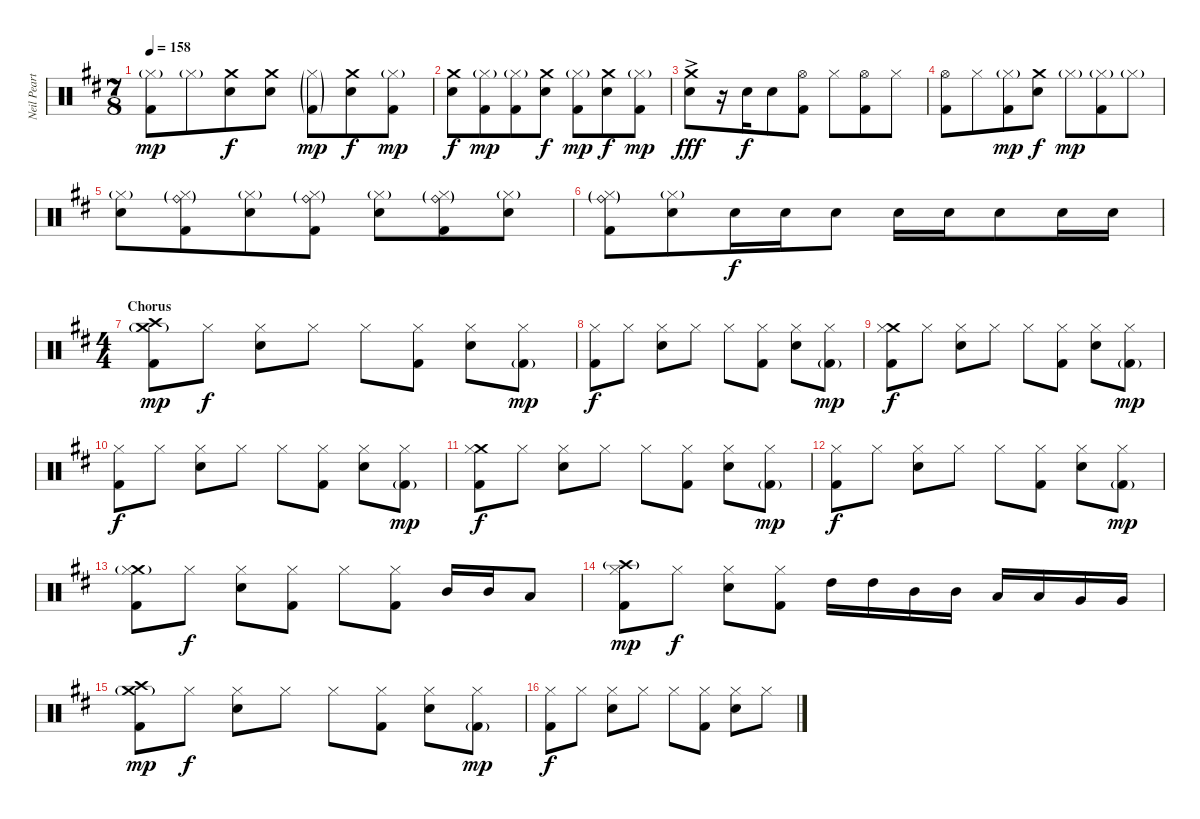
\track ("Neil Peart (drums)" "Neil Peart") {instrument percussion}
\staff {score}
\articulation defaults
\ts (7 8)
\tempo 158
\clef neutral
\ks bminor
("Hi-Hat (closed)"{g} "Kick (hit) 2").8{dy mp} "Hi-Hat (closed)"{g}.8 ("Crash medium (hit)" "Electric Snare (hit)").8{dy f} ("Crash medium (hit)" "Electric Snare (hit)").8 ("Hi-Hat (closed)"{g} "Kick (hit) 2"{g}).8{dy mp} ("Crash medium (hit)" "Electric Snare (hit)").8{dy f} ("Hi-Hat (closed)"{g} "Kick (hit) 2").8{dy mp} |
("Crash medium (hit)" "Electric Snare (hit)").8{dy f} ("Hi-Hat (closed)"{g} "Kick (hit) 2").8{dy mp} ("Hi-Hat (closed)"{g} "Kick (hit) 2").8 ("Crash medium (hit)" "Electric Snare (hit)").8{dy f} ("Hi-Hat (closed)"{g} "Kick (hit) 2").8{dy mp} ("Crash medium (hit)" "Electric Snare (hit)").8{dy f} ("Hi-Hat (closed)"{g} "Kick (hit) 2").8{dy mp} |
("Crash medium (hit)"{ac} "Electric Snare (hit)").8{dy fff} r.16 "Electric Snare (hit)".16{dy f} "Electric Snare (hit)".8 ("Hi-Hat (open)" "Kick (hit) 2").8 "Hi-Hat (closed)".8 ("Hi-Hat (open)" "Kick (hit) 2").8 "Hi-Hat (closed)".8 |
("Hi-Hat (open)" "Kick (hit) 2").8 "Hi-Hat (closed)".8 ("Hi-Hat (closed)"{g} "Kick (hit) 2").8{dy mp} ("Crash medium (hit)" "Electric Snare (hit)").8{dy f} "Hi-Hat (closed)"{g}.8{dy mp} ("Hi-Hat (closed)"{g} "Kick (hit) 2").8 "Hi-Hat (closed)"{g}.8 |
("Hi-Hat (closed)"{g} "Electric Snare (hit)").8 ("Ride (bell)"{g} "Hi-Hat (closed)"{g} "Kick (hit) 2").8 ("Hi-Hat (closed)"{g} "Electric Snare (hit)").8 ("Ride (bell)"{g} "Hi-Hat (closed)"{g} "Kick (hit) 2").8 ("Hi-Hat (closed)"{g} "Electric Snare (hit)").8 ("Ride (bell)"{g} "Hi-Hat (closed)"{g} "Kick (hit) 2").8 ("Hi-Hat (closed)"{g} "Electric Snare (hit)").8 |
("Ride (bell)"{g} "Hi-Hat (closed)"{g} "Kick (hit) 2").8 ("Hi-Hat (closed)"{g} "Electric Snare (hit)").8 "Electric Snare (hit)".16{dy f} "Electric Snare (hit)".16 "Electric Snare (hit)".8 "Electric Snare (hit)".16 "Electric Snare (hit)".16 "Electric Snare (hit)".8 "Electric Snare (hit)".16 "Electric Snare (hit)".16 |
\ts (4 4)
\section ("" "Chorus")
("Crash medium (hit)"{g} "Crash high (hit)" "Kick (hit) 2").8{dy mp} "Hi-Hat (closed)".8{dy f} ("Hi-Hat (closed)" "Electric Snare (hit)").8 "Hi-Hat (closed)".8 "Hi-Hat (closed)".8 ("Hi-Hat (closed)" "Kick (hit) 2").8 ("Hi-Hat (closed)" "Electric Snare (hit)").8 ("Hi-Hat (closed)" "Kick (hit) 2"{g}).8{dy mp} |
("Hi-Hat (closed)" "Kick (hit) 2").8{dy f} "Hi-Hat (closed)".8 ("Hi-Hat (closed)" "Electric Snare (hit)").8 "Hi-Hat (closed)".8 "Hi-Hat (closed)".8 ("Hi-Hat (closed)" "Kick (hit) 2").8 ("Hi-Hat (closed)" "Electric Snare (hit)").8 ("Hi-Hat (closed)" "Kick (hit) 2"{g}).8{dy mp} |
("Crash medium (hit)" "Hi-Hat (closed)" "Kick (hit) 2").8{dy f} "Hi-Hat (closed)".8 ("Hi-Hat (closed)" "Electric Snare (hit)").8 "Hi-Hat (closed)".8 "Hi-Hat (closed)".8 ("Hi-Hat (closed)" "Kick (hit) 2").8 ("Hi-Hat (closed)" "Electric Snare (hit)").8 ("Hi-Hat (closed)" "Kick (hit) 2"{g}).8{dy mp} |
("Hi-Hat (closed)" "Kick (hit) 2").8{dy f} "Hi-Hat (closed)".8 ("Hi-Hat (closed)" "Electric Snare (hit)").8 "Hi-Hat (closed)".8 "Hi-Hat (closed)".8 ("Hi-Hat (closed)" "Kick (hit) 2").8 ("Hi-Hat (closed)" "Electric Snare (hit)").8 ("Hi-Hat (closed)" "Kick (hit) 2"{g}).8{dy mp} |
("Crash medium (hit)" "Hi-Hat (closed)" "Kick (hit) 2").8{dy f} "Hi-Hat (closed)".8 ("Hi-Hat (closed)" "Electric Snare (hit)").8 "Hi-Hat (closed)".8 "Hi-Hat (closed)".8 ("Hi-Hat (closed)" "Kick (hit) 2").8 ("Hi-Hat (closed)" "Electric Snare (hit)").8 ("Hi-Hat (closed)" "Kick (hit) 2"{g}).8{dy mp} |
("Hi-Hat (closed)" "Kick (hit) 2").8{dy f} "Hi-Hat (closed)".8 ("Hi-Hat (closed)" "Electric Snare (hit)").8 "Hi-Hat (closed)".8 "Hi-Hat (closed)".8 ("Hi-Hat (closed)" "Kick (hit) 2").8 ("Hi-Hat (closed)" "Electric Snare (hit)").8 ("Hi-Hat (closed)" "Kick (hit) 2"{g}).8{dy mp} |
("Crash medium (hit)"{g} "Hi-Hat (closed)" "Kick (hit) 2").8 "Hi-Hat (closed)".8{dy f} ("Hi-Hat (closed)" "Electric Snare (hit)").8 ("Hi-Hat (closed)" "Kick (hit) 2").8 "Hi-Hat (closed)".8 ("Hi-Hat (closed)" "Kick (hit) 2").8 "Mid Tom (hit)".16 "Mid Tom (hit)".16 "Low Tom (hit)".8 |
("Crash high (hit)"{g} "Hi-Hat (closed)" "Kick (hit) 2").8{dy mp} "Hi-Hat (closed)".8{dy f} ("Hi-Hat (closed)" "Electric Snare (hit)").8 ("Hi-Hat (closed)" "Kick (hit) 2").8 "High Tom (hit)".16 "High Tom (hit)".16 "Mid Tom (hit)".16 "Mid Tom (hit)".16 "Low Tom (hit)".16 "Low Tom (hit)".16 "Very Low Tom (hit)".16 "Very Low Tom (hit)".16 |
("Crash medium (hit)"{g} "Crash high (hit)" "Kick (hit) 2").8{dy mp} "Hi-Hat (closed)".8{dy f} ("Hi-Hat (closed)" "Electric Snare (hit)").8 "Hi-Hat (closed)".8 "Hi-Hat (closed)".8 ("Hi-Hat (closed)" "Kick (hit) 2").8 ("Hi-Hat (closed)" "Electric Snare (hit)").8 ("Hi-Hat (closed)" "Kick (hit) 2"{g}).8{dy mp} |
("Hi-Hat (closed)" "Kick (hit) 2").8{dy f} "Hi-Hat (closed)".8 ("Hi-Hat (closed)" "Electric Snare (hit)").8 "Hi-Hat (closed)".8 "Hi-Hat (closed)".8 ("Hi-Hat (closed)" "Kick (hit) 2").8 ("Hi-Hat (closed)" "Electric Snare (hit)").8 "Hi-Hat (closed)".8
